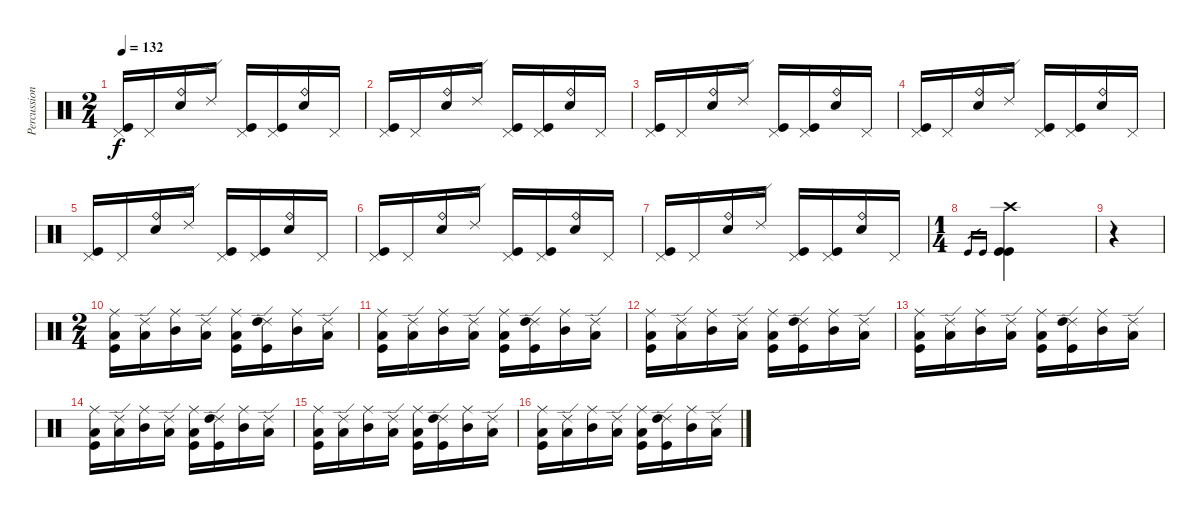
\track ("Percussion" "Percussion") {instrument percussion}
\staff {score}
\articulation defaults
\ts (2 4)
\tempo 132
\clef neutral
\ks c
("Pedal Hi-Hat (hit)" "Kick (hit)").16{dy f} "Pedal Hi-Hat (hit)".16 ("Ride (bell)" "Electric Snare (hit)").16 "Ride (edge) 2".16 ("Pedal Hi-Hat (hit)" "Kick (hit)").16 ("Pedal Hi-Hat (hit)" "Kick (hit)").16 ("Ride (bell)" "Electric Snare (hit)").16 "Pedal Hi-Hat (hit)".16 |
("Pedal Hi-Hat (hit)" "Kick (hit)").16 "Pedal Hi-Hat (hit)".16 ("Ride (bell)" "Electric Snare (hit)").16 "Ride (edge) 2".16 ("Pedal Hi-Hat (hit)" "Kick (hit)").16 ("Pedal Hi-Hat (hit)" "Kick (hit)").16 ("Ride (bell)" "Electric Snare (hit)").16 "Pedal Hi-Hat (hit)".16 |
("Pedal Hi-Hat (hit)" "Kick (hit)").16 "Pedal Hi-Hat (hit)".16 ("Ride (bell)" "Electric Snare (hit)").16 "Ride (edge) 2".16 ("Pedal Hi-Hat (hit)" "Kick (hit)").16 ("Pedal Hi-Hat (hit)" "Kick (hit)").16 ("Ride (bell)" "Electric Snare (hit)").16 "Pedal Hi-Hat (hit)".16 |
("Pedal Hi-Hat (hit)" "Kick (hit)").16 "Pedal Hi-Hat (hit)".16 ("Ride (bell)" "Electric Snare (hit)").16 "Ride (edge) 2".16 ("Pedal Hi-Hat (hit)" "Kick (hit)").16 ("Pedal Hi-Hat (hit)" "Kick (hit)").16 ("Ride (bell)" "Electric Snare (hit)").16 "Pedal Hi-Hat (hit)".16 |
("Pedal Hi-Hat (hit)" "Kick (hit)").16 "Pedal Hi-Hat (hit)".16 ("Ride (bell)" "Electric Snare (hit)").16 "Ride (edge) 2".16 ("Pedal Hi-Hat (hit)" "Kick (hit)").16 ("Pedal Hi-Hat (hit)" "Kick (hit)").16 ("Ride (bell)" "Electric Snare (hit)").16 "Pedal Hi-Hat (hit)".16 |
("Pedal Hi-Hat (hit)" "Kick (hit)").16 "Pedal Hi-Hat (hit)".16 ("Ride (bell)" "Electric Snare (hit)").16 "Ride (edge) 2".16 ("Pedal Hi-Hat (hit)" "Kick (hit)").16 ("Pedal Hi-Hat (hit)" "Kick (hit)").16 ("Ride (bell)" "Electric Snare (hit)").16 "Pedal Hi-Hat (hit)".16 |
("Pedal Hi-Hat (hit)" "Kick (hit)").16 "Pedal Hi-Hat (hit)".16 ("Ride (bell)" "Electric Snare (hit)").16 "Ride (edge) 2".16 ("Pedal Hi-Hat (hit)" "Kick (hit)").16 ("Pedal Hi-Hat (hit)" "Kick (hit)").16 ("Ride (bell)" "Electric Snare (hit)").16 "Pedal Hi-Hat (hit)".16 |
\ts (1 4)
"Kick (hit)".16{gr} "Kick (hit)".16{gr} ("Crash high (hit)" "Kick (hit)" "Kick (hit)").4 |
r.4 |
\ts (2 4)
("Ride (middle)" "Low Tom (hit)" "Kick (hit)").16 ("Ride (edge) 2" "Low Tom (hit)").16 ("Ride (middle)" "Mid Tom (hit)").16 ("Ride (edge) 2" "Low Tom (hit)").16 ("Ride (middle)" "Low Tom (hit)" "Kick (hit)").16 ("Ride (edge) 2" "High Tom (hit)" "Kick (hit)").16 ("Ride (middle)" "Mid Tom (hit)").16 ("Ride (edge) 2" "Low Tom (hit)").16 |
("Ride (middle)" "Low Tom (hit)" "Kick (hit)").16 ("Ride (edge) 2" "Low Tom (hit)").16 ("Ride (middle)" "Mid Tom (hit)").16 ("Ride (edge) 2" "Low Tom (hit)").16 ("Ride (middle)" "Low Tom (hit)" "Kick (hit)").16 ("Ride (edge) 2" "High Tom (hit)" "Kick (hit)").16 ("Ride (middle)" "Mid Tom (hit)").16 ("Ride (edge) 2" "Low Tom (hit)").16 |
("Ride (middle)" "Low Tom (hit)" "Kick (hit)").16 ("Ride (edge) 2" "Low Tom (hit)").16 ("Ride (middle)" "Mid Tom (hit)").16 ("Ride (edge) 2" "Low Tom (hit)").16 ("Ride (middle)" "Low Tom (hit)" "Kick (hit)").16 ("Ride (edge) 2" "High Tom (hit)" "Kick (hit)").16 ("Ride (middle)" "Mid Tom (hit)").16 ("Ride (edge) 2" "Low Tom (hit)").16 |
("Ride (middle)" "Low Tom (hit)" "Kick (hit)").16 ("Ride (edge) 2" "Low Tom (hit)").16 ("Ride (middle)" "Mid Tom (hit)").16 ("Ride (edge) 2" "Low Tom (hit)").16 ("Ride (middle)" "Low Tom (hit)" "Kick (hit)").16 ("Ride (edge) 2" "High Tom (hit)" "Kick (hit)").16 ("Ride (middle)" "Mid Tom (hit)").16 ("Ride (edge) 2" "Low Tom (hit)").16 |
("Ride (middle)" "Low Tom (hit)" "Kick (hit)").16 ("Ride (edge) 2" "Low Tom (hit)").16 ("Ride (middle)" "Mid Tom (hit)").16 ("Ride (edge) 2" "Low Tom (hit)").16 ("Ride (middle)" "Low Tom (hit)" "Kick (hit)").16 ("Ride (edge) 2" "High Tom (hit)" "Kick (hit)").16 ("Ride (middle)" "Mid Tom (hit)").16 ("Ride (edge) 2" "Low Tom (hit)").16 |
("Ride (middle)" "Low Tom (hit)" "Kick (hit)").16 ("Ride (edge) 2" "Low Tom (hit)").16 ("Ride (middle)" "Mid Tom (hit)").16 ("Ride (edge) 2" "Low Tom (hit)").16 ("Ride (middle)" "Low Tom (hit)" "Kick (hit)").16 ("Ride (edge) 2" "High Tom (hit)" "Kick (hit)").16 ("Ride (middle)" "Mid Tom (hit)").16 ("Ride (edge) 2" "Low Tom (hit)").16 |
("Ride (middle)" "Low Tom (hit)" "Kick (hit)").16 ("Ride (edge) 2" "Low Tom (hit)").16 ("Ride (middle)" "Mid Tom (hit)").16 ("Ride (edge) 2" "Low Tom (hit)").16 ("Ride (middle)" "Low Tom (hit)" "Kick (hit)").16 ("Ride (edge) 2" "High Tom (hit)" "Kick (hit)").16 ("Ride (middle)" "Mid Tom (hit)").16 ("Ride (edge) 2" "Low Tom (hit)").16
